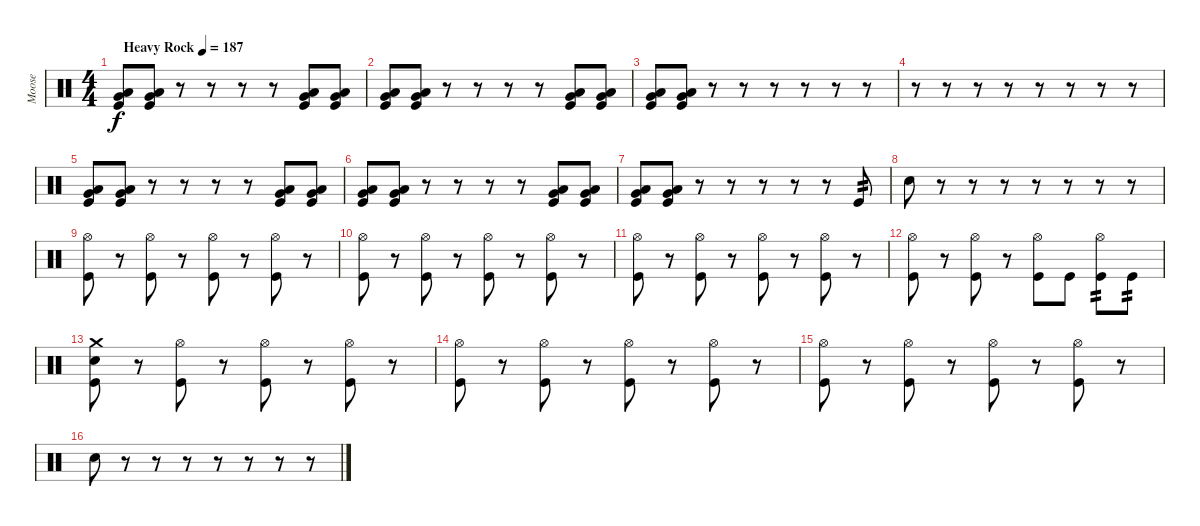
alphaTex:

\track ("Moose" "Moose") {instrument percussion}
\staff {score}
\articulation defaults
\ts (4 4)
\tempo (187 "Heavy Rock")
\clef neutral
\ks c
("Low Floor Tom (hit)" "Very Low Tom (hit)" "Kick (hit)").8{dy f} ("Low Floor Tom (hit)" "Very Low Tom (hit)" "Kick (hit)").8 r.8 r.8 r.8 r.8 ("Low Floor Tom (hit)" "Very Low Tom (hit)" "Kick (hit)").8 ("Low Floor Tom (hit)" "Very Low Tom (hit)" "Kick (hit)").8 |
("Low Floor Tom (hit)" "Very Low Tom (hit)" "Kick (hit)").8 ("Low Floor Tom (hit)" "Very Low Tom (hit)" "Kick (hit)").8 r.8 r.8 r.8 r.8 ("Low Floor Tom (hit)" "Very Low Tom (hit)" "Kick (hit)").8 ("Low Floor Tom (hit)" "Very Low Tom (hit)" "Kick (hit)").8 |
("Low Floor Tom (hit)" "Very Low Tom (hit)" "Kick (hit)").8 ("Low Floor Tom (hit)" "Very Low Tom (hit)" "Kick (hit)").8 r.8 r.8 r.8 r.8 r.8 r.8 |
r.8 r.8 r.8 r.8 r.8 r.8 r.8 r.8 |
("Low Floor Tom (hit)" "Very Low Tom (hit)" "Kick (hit)").8 ("Low Floor Tom (hit)" "Very Low Tom (hit)" "Kick (hit)").8 r.8 r.8 r.8 r.8 ("Low Floor Tom (hit)" "Very Low Tom (hit)" "Kick (hit)").8 ("Low Floor Tom (hit)" "Very Low Tom (hit)" "Kick (hit)").8 |
("Low Floor Tom (hit)" "Very Low Tom (hit)" "Kick (hit)").8 ("Low Floor Tom (hit)" "Very Low Tom (hit)" "Kick (hit)").8 r.8 r.8 r.8 r.8 ("Low Floor Tom (hit)" "Very Low Tom (hit)" "Kick (hit)").8 ("Low Floor Tom (hit)" "Very Low Tom (hit)" "Kick (hit)").8 |
("Low Floor Tom (hit)" "Very Low Tom (hit)" "Kick (hit)").8 ("Low Floor Tom (hit)" "Very Low Tom (hit)" "Kick (hit)").8 r.8 r.8 r.8 r.8 r.8 "Kick (hit)".8{tp 2} |
"Electric Snare (hit)".8 r.8 r.8 r.8 r.8 r.8 r.8 r.8 |
("Hi-Hat (open)" "Kick (hit)").8 r.8 ("Hi-Hat (open)" "Kick (hit)").8 r.8 ("Hi-Hat (open)" "Kick (hit)").8 r.8 ("Hi-Hat (open)" "Kick (hit)").8 r.8 |
("Hi-Hat (open)" "Kick (hit)").8 r.8 ("Hi-Hat (open)" "Kick (hit)").8 r.8 ("Hi-Hat (open)" "Kick (hit)").8 r.8 ("Hi-Hat (open)" "Kick (hit)").8 r.8 |
("Hi-Hat (open)" "Kick (hit)").8 r.8 ("Hi-Hat (open)" "Kick (hit)").8 r.8 ("Hi-Hat (open)" "Kick (hit)").8 r.8 ("Hi-Hat (open)" "Kick (hit)").8 r.8 |
("Hi-Hat (open)" "Kick (hit)").8 r.8 ("Hi-Hat (open)" "Kick (hit)").8 r.8 ("Hi-Hat (open)" "Kick (hit)").8 "Kick (hit)".8 ("Hi-Hat (open)" "Kick (hit)").8{tp 2} "Kick (hit)".8{tp 2} |
("Crash medium (hit)" "Electric Snare (hit)" "Kick (hit)").8 r.8 ("Hi-Hat (open)" "Kick (hit)").8 r.8 ("Hi-Hat (open)" "Kick (hit)").8 r.8 ("Hi-Hat (open)" "Kick (hit)").8 r.8 |
("Hi-Hat (open)" "Kick (hit)").8 r.8 ("Hi-Hat (open)" "Kick (hit)").8 r.8 ("Hi-Hat (open)" "Kick (hit)").8 r.8 ("Hi-Hat (open)" "Kick (hit)").8 r.8 |
("Hi-Hat (open)" "Kick (hit)").8 r.8 ("Hi-Hat (open)" "Kick (hit)").8 r.8 ("Hi-Hat (open)" "Kick (hit)").8 r.8 ("Hi-Hat (open)" "Kick (hit)").8 r.8 |
"Electric Snare (hit)".8 r.8 r.8 r.8 r.8 r.8 r.8 r.8
